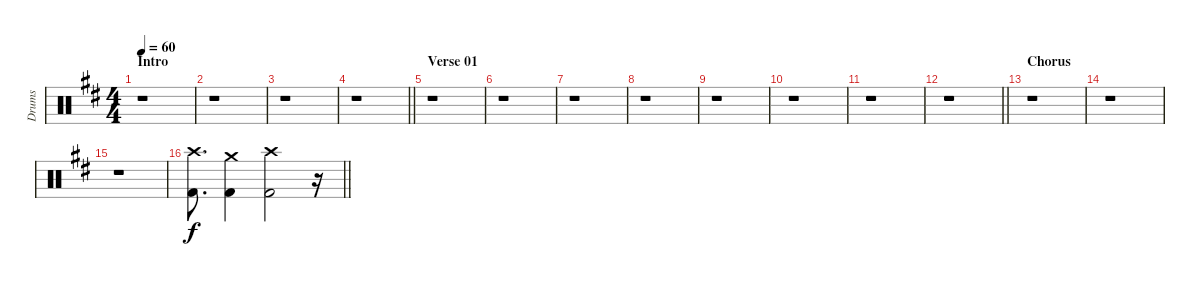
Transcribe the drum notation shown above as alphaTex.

\track ("Drums" "Drums") {instrument percussion}
\staff
\articulation defaults
\ts (4 4)
\section ("" "Intro")
\tempo 60
\clef neutral
\ks d
r.1{dy f} |
r.1 |
r.1 |
\barLineRight lightlight
r.1 |
\section ("" "Verse 01")
r.1 |
r.1 |
r.1 |
r.1 |
r.1 |
r.1 |
r.1 |
\barLineRight lightlight
r.1 |
\section ("" "Chorus")
r.1 |
r.1 |
r.1 |
\barLineRight lightlight
("Crash high (hit)" "Kick (hit) 2").8{d} ("Crash medium (hit)" "Kick (hit) 2").4 ("Crash high (hit)" "Kick (hit) 2").2 r.16
